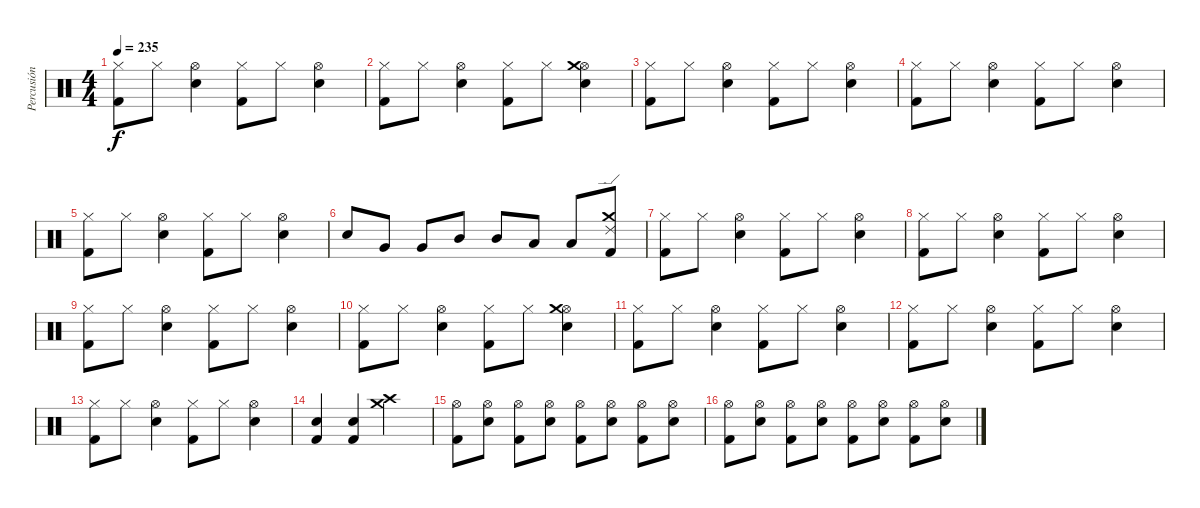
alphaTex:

\track ("Percusión" "Percusión") {instrument percussion}
\staff {score}
\articulation defaults
\ts (4 4)
\tempo 235
\clef neutral
\ks c
("Hi-Hat (closed)" "Kick (hit) 2").8{dy f} "Hi-Hat (closed)".8 ("Electric Snare (hit)" "Hi-Hat (open)").4 ("Hi-Hat (closed)" "Kick (hit) 2").8 "Hi-Hat (closed)".8 ("Electric Snare (hit)" "Hi-Hat (open)").4 |
("Hi-Hat (closed)" "Kick (hit) 2").8 "Hi-Hat (closed)".8 ("Electric Snare (hit)" "Hi-Hat (open)").4 ("Hi-Hat (closed)" "Kick (hit) 2").8 "Hi-Hat (closed)".8 ("Electric Snare (hit)" "Hi-Hat (open)" "Crash medium (hit)").4 |
("Hi-Hat (closed)" "Kick (hit) 2").8 "Hi-Hat (closed)".8 ("Electric Snare (hit)" "Hi-Hat (open)").4 ("Hi-Hat (closed)" "Kick (hit) 2").8 "Hi-Hat (closed)".8 ("Electric Snare (hit)" "Hi-Hat (open)").4 |
("Hi-Hat (closed)" "Kick (hit) 2").8 "Hi-Hat (closed)".8 ("Electric Snare (hit)" "Hi-Hat (open)").4 ("Hi-Hat (closed)" "Kick (hit) 2").8 "Hi-Hat (closed)".8 ("Electric Snare (hit)" "Hi-Hat (open)").4 |
("Hi-Hat (closed)" "Kick (hit) 2").8 "Hi-Hat (closed)".8 ("Electric Snare (hit)" "Hi-Hat (open)").4 ("Hi-Hat (closed)" "Kick (hit) 2").8 "Hi-Hat (closed)".8 ("Electric Snare (hit)" "Hi-Hat (open)").4 |
"Electric Snare (hit)".8 "Very Low Tom (hit)".8 "Very Low Tom (hit)".8 "Mid Tom (hit)".8 "Mid Tom (hit)".8 "Low Tom (hit)".8 "Low Tom (hit)".8 ("Kick (hit) 2" "Crash medium (hit)" "Ride (edge) 2").8 |
("Hi-Hat (closed)" "Kick (hit) 2").8 "Hi-Hat (closed)".8 ("Electric Snare (hit)" "Hi-Hat (open)").4 ("Hi-Hat (closed)" "Kick (hit) 2").8 "Hi-Hat (closed)".8 ("Electric Snare (hit)" "Hi-Hat (open)").4 |
("Hi-Hat (closed)" "Kick (hit) 2").8 "Hi-Hat (closed)".8 ("Electric Snare (hit)" "Hi-Hat (open)").4 ("Hi-Hat (closed)" "Kick (hit) 2").8 "Hi-Hat (closed)".8 ("Electric Snare (hit)" "Hi-Hat (open)").4 |
("Hi-Hat (closed)" "Kick (hit) 2").8 "Hi-Hat (closed)".8 ("Electric Snare (hit)" "Hi-Hat (open)").4 ("Hi-Hat (closed)" "Kick (hit) 2").8 "Hi-Hat (closed)".8 ("Electric Snare (hit)" "Hi-Hat (open)").4 |
("Hi-Hat (closed)" "Kick (hit) 2").8 "Hi-Hat (closed)".8 ("Electric Snare (hit)" "Hi-Hat (open)").4 ("Hi-Hat (closed)" "Kick (hit) 2").8 "Hi-Hat (closed)".8 ("Electric Snare (hit)" "Hi-Hat (open)" "Crash medium (hit)").4 |
("Hi-Hat (closed)" "Kick (hit) 2").8 "Hi-Hat (closed)".8 ("Electric Snare (hit)" "Hi-Hat (open)").4 ("Hi-Hat (closed)" "Kick (hit) 2").8 "Hi-Hat (closed)".8 ("Electric Snare (hit)" "Hi-Hat (open)").4 |
("Hi-Hat (closed)" "Kick (hit) 2").8 "Hi-Hat (closed)".8 ("Electric Snare (hit)" "Hi-Hat (open)").4 ("Hi-Hat (closed)" "Kick (hit) 2").8 "Hi-Hat (closed)".8 ("Electric Snare (hit)" "Hi-Hat (open)").4 |
("Hi-Hat (closed)" "Kick (hit) 2").8 "Hi-Hat (closed)".8 ("Electric Snare (hit)" "Hi-Hat (open)").4 ("Hi-Hat (closed)" "Kick (hit) 2").8 "Hi-Hat (closed)".8 ("Electric Snare (hit)" "Hi-Hat (open)").4 |
("Electric Snare (hit)" "Kick (hit) 2").4 ("Electric Snare (hit)" "Kick (hit) 2").4 ("Crash medium (hit)" "Crash high (hit)").2 |
("Hi-Hat (open)" "Kick (hit) 2").8 ("Hi-Hat (open)" "Electric Snare (hit)").8 ("Hi-Hat (open)" "Kick (hit) 2").8 ("Hi-Hat (open)" "Electric Snare (hit)").8 ("Hi-Hat (open)" "Kick (hit) 2").8 ("Hi-Hat (open)" "Electric Snare (hit)").8 ("Hi-Hat (open)" "Kick (hit) 2").8 ("Hi-Hat (open)" "Electric Snare (hit)").8 |
("Hi-Hat (open)" "Kick (hit) 2").8 ("Hi-Hat (open)" "Electric Snare (hit)").8 ("Hi-Hat (open)" "Kick (hit) 2").8 ("Hi-Hat (open)" "Electric Snare (hit)").8 ("Hi-Hat (open)" "Kick (hit) 2").8 ("Hi-Hat (open)" "Electric Snare (hit)").8 ("Hi-Hat (open)" "Kick (hit) 2").8 ("Hi-Hat (open)" "Electric Snare (hit)").8
